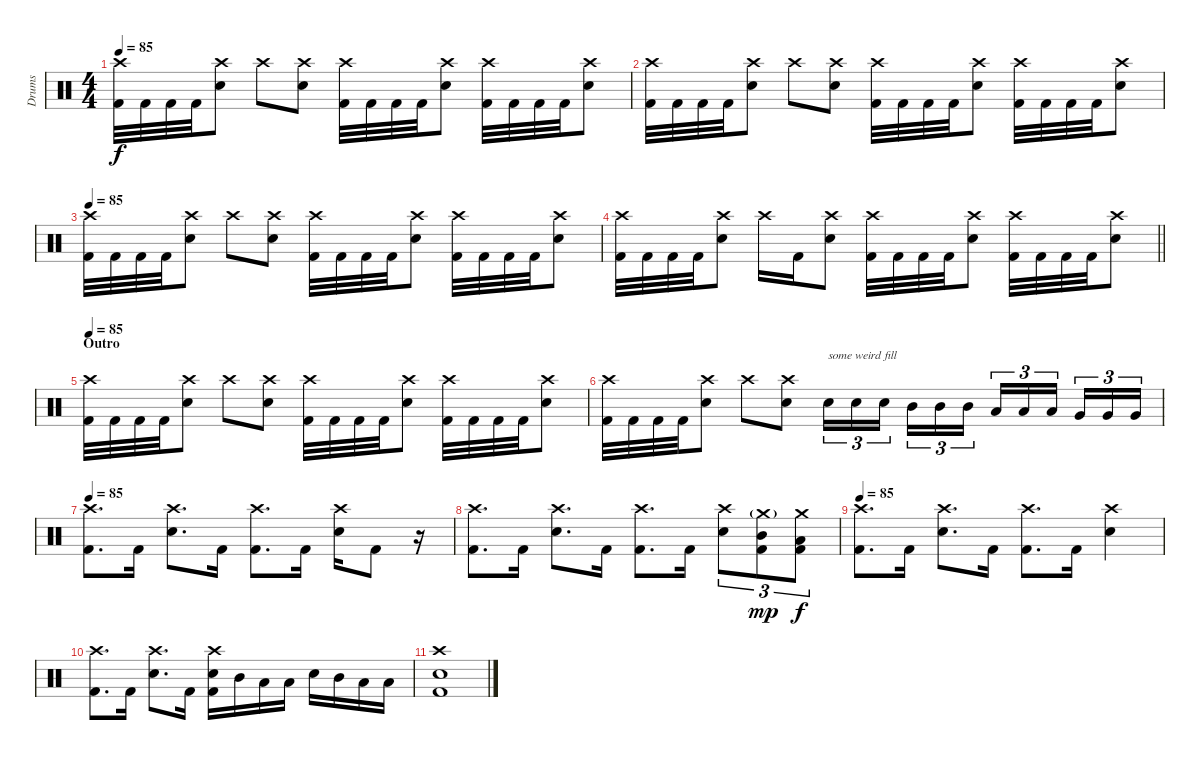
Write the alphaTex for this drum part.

\track ("Drums" "Drums") {instrument percussion}
\staff {score}
\articulation defaults
\ts (4 4)
\tempo 85
\clef neutral
\ks c
("Crash high (hit)" "Kick (hit) 2").32{dy f} "Kick (hit) 2".32 "Kick (hit) 2".32 "Kick (hit) 2".32 ("Crash high (hit)" "Electric Snare (hit)").8 "Crash high (hit)".8 ("Crash high (hit)" "Electric Snare (hit)").8 ("Crash high (hit)" "Kick (hit) 2").32 "Kick (hit) 2".32 "Kick (hit) 2".32 "Kick (hit) 2".32 ("Crash high (hit)" "Electric Snare (hit)").8 ("Crash high (hit)" "Kick (hit) 2").32 "Kick (hit) 2".32 "Kick (hit) 2".32 "Kick (hit) 2".32 ("Crash high (hit)" "Electric Snare (hit)").8 |
("Crash high (hit)" "Kick (hit) 2").32 "Kick (hit) 2".32 "Kick (hit) 2".32 "Kick (hit) 2".32 ("Crash high (hit)" "Electric Snare (hit)").8 "Crash high (hit)".8 ("Crash high (hit)" "Electric Snare (hit)").8 ("Crash high (hit)" "Kick (hit) 2").32 "Kick (hit) 2".32 "Kick (hit) 2".32 "Kick (hit) 2".32 ("Crash high (hit)" "Electric Snare (hit)").8 ("Crash high (hit)" "Kick (hit) 2").32 "Kick (hit) 2".32 "Kick (hit) 2".32 "Kick (hit) 2".32 ("Crash high (hit)" "Electric Snare (hit)").8 |
\tempo 85
("Crash high (hit)" "Kick (hit) 2").32 "Kick (hit) 2".32 "Kick (hit) 2".32 "Kick (hit) 2".32 ("Crash high (hit)" "Electric Snare (hit)").8 "Crash high (hit)".8 ("Crash high (hit)" "Electric Snare (hit)").8 ("Crash high (hit)" "Kick (hit) 2").32 "Kick (hit) 2".32 "Kick (hit) 2".32 "Kick (hit) 2".32 ("Crash high (hit)" "Electric Snare (hit)").8 ("Crash high (hit)" "Kick (hit) 2").32 "Kick (hit) 2".32 "Kick (hit) 2".32 "Kick (hit) 2".32 ("Crash high (hit)" "Electric Snare (hit)").8 |
\barLineRight lightlight
("Crash high (hit)" "Kick (hit) 2").32 "Kick (hit) 2".32 "Kick (hit) 2".32 "Kick (hit) 2".32 ("Crash high (hit)" "Electric Snare (hit)").8 "Crash high (hit)".16 "Kick (hit) 2".16 ("Crash high (hit)" "Electric Snare (hit)").8 ("Crash high (hit)" "Kick (hit) 2").32 "Kick (hit) 2".32 "Kick (hit) 2".32 "Kick (hit) 2".32 ("Crash high (hit)" "Electric Snare (hit)").8 ("Crash high (hit)" "Kick (hit) 2").32 "Kick (hit) 2".32 "Kick (hit) 2".32 "Kick (hit) 2".32 ("Crash high (hit)" "Electric Snare (hit)").8 |
\section ("" "Outro")
\tempo 85
("Crash high (hit)" "Kick (hit) 2").32 "Kick (hit) 2".32 "Kick (hit) 2".32 "Kick (hit) 2".32 ("Crash high (hit)" "Electric Snare (hit)").8 "Crash high (hit)".8 ("Crash high (hit)" "Electric Snare (hit)").8 ("Crash high (hit)" "Kick (hit) 2").32 "Kick (hit) 2".32 "Kick (hit) 2".32 "Kick (hit) 2".32 ("Crash high (hit)" "Electric Snare (hit)").8 ("Crash high (hit)" "Kick (hit) 2").32 "Kick (hit) 2".32 "Kick (hit) 2".32 "Kick (hit) 2".32 ("Crash high (hit)" "Electric Snare (hit)").8 |
("Crash high (hit)" "Kick (hit) 2").32 "Kick (hit) 2".32 "Kick (hit) 2".32 "Kick (hit) 2".32 ("Crash high (hit)" "Electric Snare (hit)").8 "Crash high (hit)".8 ("Crash high (hit)" "Electric Snare (hit)").8 "Electric Snare (hit)".16{tu (3 2) txt "some weird fill"} "Electric Snare (hit)".16{tu (3 2)} "Electric Snare (hit)".16{tu (3 2) beam splitsecondary} "Mid Tom (hit)".16{tu (3 2)} "Mid Tom (hit)".16{tu (3 2)} "Mid Tom (hit)".16{tu (3 2)} "Low Tom (hit)".16{tu (3 2)} "Low Tom (hit)".16{tu (3 2)} "Low Tom (hit)".16{tu (3 2) beam splitsecondary} "Very Low Tom (hit)".16{tu (3 2)} "Very Low Tom (hit)".16{tu (3 2)} "Very Low Tom (hit)".16{tu (3 2)} |
\tempo 85
("Crash high (hit)" "Kick (hit) 2").8{d} "Kick (hit) 2".16 ("Crash high (hit)" "Electric Snare (hit)").8{d} "Kick (hit) 2".16 ("Crash high (hit)" "Kick (hit) 2").8{d} "Kick (hit) 2".16 ("Crash high (hit)" "Electric Snare (hit)").16 "Kick (hit) 2".8 r.16{volume 0} |
("Crash high (hit)" "Kick (hit) 2").8{d volume 13} "Kick (hit) 2".16 ("Crash high (hit)" "Electric Snare (hit)").8{d} "Kick (hit) 2".16 ("Crash high (hit)" "Kick (hit) 2").8{d} "Kick (hit) 2".16 ("Crash high (hit)" "Electric Snare (hit)").8{tu (3 2)} ("Crash medium (hit)"{g} "Mid Tom (hit)" "Kick (hit) 2").8{tu (3 2) dy mp} ("Crash medium (hit)" "Low Tom (hit)" "Kick (hit) 2").8{tu (3 2) dy f} |
\tempo 85
("Crash high (hit)" "Kick (hit) 2").8{d} "Kick (hit) 2".16 ("Crash high (hit)" "Electric Snare (hit)").8{d} "Kick (hit) 2".16 ("Crash high (hit)" "Kick (hit) 2").8{d} "Kick (hit) 2".16 ("Crash high (hit)" "Electric Snare (hit)").4 |
("Crash high (hit)" "Kick (hit) 2").8{d} "Kick (hit) 2".16 ("Crash high (hit)" "Electric Snare (hit)").8{d} "Kick (hit) 2".16 ("Crash high (hit)" "Electric Snare (hit)" "Kick (hit) 2").16 "Mid Tom (hit)".16 "Low Tom (hit)".16 "Low Tom (hit)".16 "Electric Snare (hit)".16 "Mid Tom (hit)".16 "Low Tom (hit)".16 "Low Tom (hit)".16 |
("Crash high (hit)" "Electric Snare (hit)" "Kick (hit) 2").1
